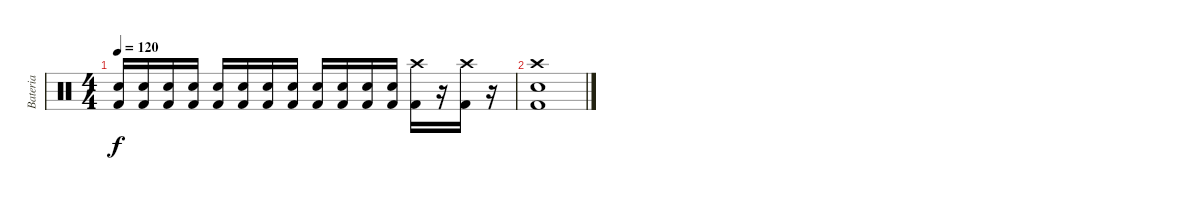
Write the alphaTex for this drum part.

\track ("Bateria" "Bateria") {instrument percussion}
\staff {score}
\articulation defaults
\ts (4 4)
\tempo 120
\clef neutral
\ks c
("Kick (hit) 2" "Snare (hit) 2").16{dy f} ("Kick (hit) 2" "Snare (hit) 2").16 ("Kick (hit) 2" "Snare (hit) 2").16 ("Kick (hit) 2" "Snare (hit) 2").16 ("Kick (hit) 2" "Snare (hit) 2").16 ("Kick (hit) 2" "Snare (hit) 2").16 ("Kick (hit) 2" "Snare (hit) 2").16 ("Kick (hit) 2" "Snare (hit) 2").16 ("Kick (hit) 2" "Snare (hit) 2").16 ("Kick (hit) 2" "Snare (hit) 2").16 ("Kick (hit) 2" "Snare (hit) 2").16 ("Kick (hit) 2" "Snare (hit) 2").16 ("Kick (hit) 2" "Crash high (hit)").16 r.16 ("Kick (hit) 2" "Crash high (hit)").16 r.16 |
("Kick (hit) 2" "Snare (hit) 2" "Crash high (hit)").1
